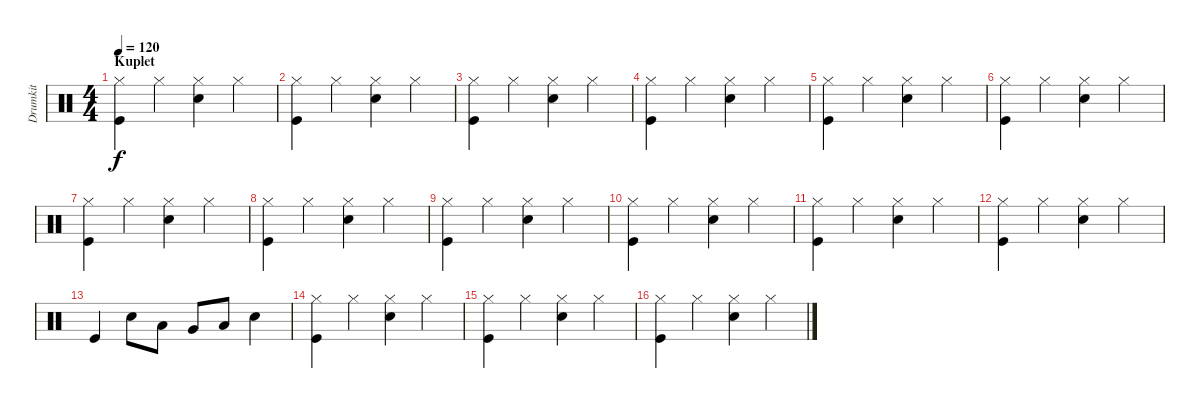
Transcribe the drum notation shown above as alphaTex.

\track ("Drumkit" "Drumkit") {instrument percussion}
\staff {score}
\articulation defaults
\ts (4 4)
\section ("" "Kuplet")
\tempo 120
\clef neutral
\ks c
("Kick (hit)" "Hi-Hat (closed)").4{dy f} "Hi-Hat (closed)".4 ("Snare (hit) 2" "Hi-Hat (closed)").4 "Hi-Hat (closed)".4 |
("Kick (hit)" "Hi-Hat (closed)").4 "Hi-Hat (closed)".4 ("Snare (hit) 2" "Hi-Hat (closed)").4 "Hi-Hat (closed)".4 |
("Kick (hit)" "Hi-Hat (closed)").4 "Hi-Hat (closed)".4 ("Snare (hit) 2" "Hi-Hat (closed)").4 "Hi-Hat (closed)".4 |
("Kick (hit)" "Hi-Hat (closed)").4 "Hi-Hat (closed)".4 ("Snare (hit) 2" "Hi-Hat (closed)").4 "Hi-Hat (closed)".4 |
("Kick (hit)" "Hi-Hat (closed)").4 "Hi-Hat (closed)".4 ("Snare (hit) 2" "Hi-Hat (closed)").4 "Hi-Hat (closed)".4 |
("Kick (hit)" "Hi-Hat (closed)").4 "Hi-Hat (closed)".4 ("Snare (hit) 2" "Hi-Hat (closed)").4 "Hi-Hat (closed)".4 |
("Kick (hit)" "Hi-Hat (closed)").4 "Hi-Hat (closed)".4 ("Snare (hit) 2" "Hi-Hat (closed)").4 "Hi-Hat (closed)".4 |
("Kick (hit)" "Hi-Hat (closed)").4 "Hi-Hat (closed)".4 ("Snare (hit) 2" "Hi-Hat (closed)").4 "Hi-Hat (closed)".4 |
("Kick (hit)" "Hi-Hat (closed)").4 "Hi-Hat (closed)".4 ("Snare (hit) 2" "Hi-Hat (closed)").4 "Hi-Hat (closed)".4 |
("Kick (hit)" "Hi-Hat (closed)").4 "Hi-Hat (closed)".4 ("Snare (hit) 2" "Hi-Hat (closed)").4 "Hi-Hat (closed)".4 |
("Kick (hit)" "Hi-Hat (closed)").4 "Hi-Hat (closed)".4 ("Snare (hit) 2" "Hi-Hat (closed)").4 "Hi-Hat (closed)".4 |
("Kick (hit)" "Hi-Hat (closed)").4 "Hi-Hat (closed)".4 ("Snare (hit) 2" "Hi-Hat (closed)").4 "Hi-Hat (closed)".4 |
"Kick (hit)".4 "Snare (hit) 2".8 "Low Tom (hit)".8 "Very Low Tom (hit)".8 "Low Floor Tom (hit)".8 "Snare (hit) 2".4 |
("Kick (hit)" "Hi-Hat (closed)").4 "Hi-Hat (closed)".4 ("Snare (hit) 2" "Hi-Hat (closed)").4 "Hi-Hat (closed)".4 |
("Kick (hit)" "Hi-Hat (closed)").4 "Hi-Hat (closed)".4 ("Snare (hit) 2" "Hi-Hat (closed)").4 "Hi-Hat (closed)".4 |
("Kick (hit)" "Hi-Hat (closed)").4 "Hi-Hat (closed)".4 ("Snare (hit) 2" "Hi-Hat (closed)").4 "Hi-Hat (closed)".4
